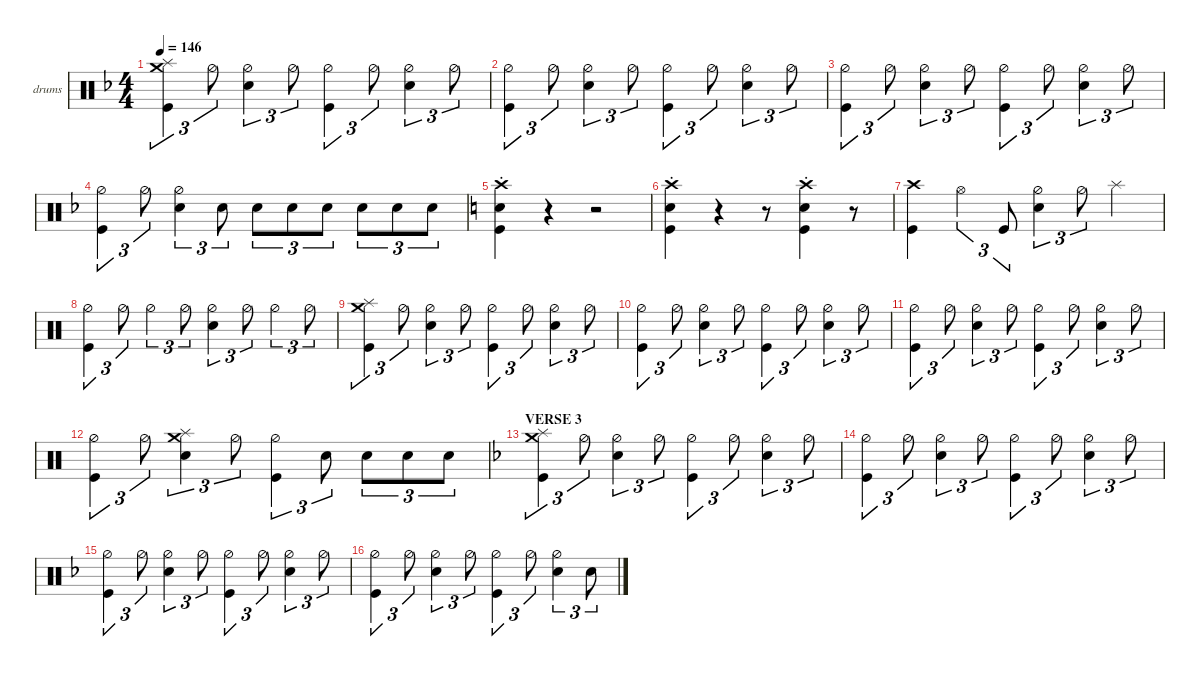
\defaultSystemsLayout 4
\hideDynamics
\bracketExtendMode nobrackets
\firstSystemTrackNameOrientation horizontal
\otherSystemsTrackNameOrientation horizontal
\track ("drums" "drums") {instrument percussion}
\staff {score}
\articulation defaults
\ts (4 4)
\tempo 146
\clef neutral
\scale
1.06392
\ks f
("Kick (hit)" "Splash (hit)" "Crash medium (hit)").4{tu (3 2) dy mf} "Hi-Hat (half)".8{tu (3 2)} ("Hi-Hat (half)" "Snare (hit) 2").4{tu (3 2)} "Hi-Hat (half)".8{tu (3 2)} ("Kick (hit)" "Hi-Hat (half)").4{tu (3 2)} "Hi-Hat (half)".8{tu (3 2)} ("Hi-Hat (half)" "Snare (hit) 2").4{tu (3 2)} "Hi-Hat (half)".8{tu (3 2)} |
\scale
0.978695 ("Kick (hit)" "Hi-Hat (half)").4{tu (3 2)} "Hi-Hat (half)".8{tu (3 2)} ("Hi-Hat (half)" "Snare (hit) 2").4{tu (3 2)} "Hi-Hat (half)".8{tu (3 2)} ("Kick (hit)" "Hi-Hat (half)").4{tu (3 2)} "Hi-Hat (half)".8{tu (3 2)} ("Hi-Hat (half)" "Snare (hit) 2").4{tu (3 2)} "Hi-Hat (half)".8{tu (3 2)} |
\scale
0.978695 ("Kick (hit)" "Hi-Hat (half)").4{tu (3 2)} "Hi-Hat (half)".8{tu (3 2)} ("Hi-Hat (half)" "Snare (hit) 2").4{tu (3 2)} "Hi-Hat (half)".8{tu (3 2)} ("Kick (hit)" "Hi-Hat (half)").4{tu (3 2)} "Hi-Hat (half)".8{tu (3 2)} ("Hi-Hat (half)" "Snare (hit) 2").4{tu (3 2)} "Hi-Hat (half)".8{tu (3 2)} |
\scale
0.978695 ("Kick (hit)" "Hi-Hat (half)").4{tu (3 2)} "Hi-Hat (half)".8{tu (3 2)} ("Hi-Hat (half)" "Snare (hit) 2").4{tu (3 2)} "Snare (hit) 2".8{tu (3 2) dy p} "Snare (hit) 2".8{tu (3 2)} "Snare (hit) 2".8{tu (3 2) dy mp} "Snare (hit) 2".8{tu (3 2)} "Snare (hit) 2".8{tu (3 2)} "Snare (hit) 2".8{tu (3 2) dy mf} "Snare (hit) 2".8{tu (3 2)} |
\scale
1.06392
\ks c
("Kick (hit)" "Crash high (hit)"{st} "Snare (hit) 2").4 r.4 r.2 |
\scale
0.978695 ("Kick (hit)" "Crash high (hit)"{st} "Snare (hit) 2").4 r.4 r.8 ("Kick (hit)" "Crash high (hit)"{st} "Snare (hit) 2").4 r.8 |
\scale
0.978695 ("Kick (hit)" "Crash high (hit)").4 "Hi-Hat (open)".4{tu (3 2)} "Kick (hit)".8{tu (3 2)} ("Hi-Hat (half)" "Snare (hit) 2").4{tu (3 2)} "Hi-Hat (half)".8{tu (3 2)} "Splash (hit)".4{dy p} |
\scale
0.978695 ("Kick (hit)" "Hi-Hat (half)").4{tu (3 2) dy mf} "Hi-Hat (half)".8{tu (3 2)} "Hi-Hat (half)".4{tu (3 2)} "Hi-Hat (half)".8{tu (3 2)} ("Hi-Hat (half)" "Snare (hit) 2").4{tu (3 2)} "Hi-Hat (half)".8{tu (3 2)} "Hi-Hat (half)".4{tu (3 2)} "Hi-Hat (half)".8{tu (3 2)} |
\scale
1.05949 ("Kick (hit)" "Splash (hit)" "Crash medium (hit)").4{tu (3 2)} "Hi-Hat (half)".8{tu (3 2)} ("Hi-Hat (half)" "Snare (hit) 2").4{tu (3 2)} "Hi-Hat (half)".8{tu (3 2)} ("Kick (hit)" "Hi-Hat (half)").4{tu (3 2)} "Hi-Hat (half)".8{tu (3 2)} ("Hi-Hat (half)" "Snare (hit) 2").4{tu (3 2)} "Hi-Hat (half)".8{tu (3 2)} |
\scale
0.974274 ("Kick (hit)" "Hi-Hat (half)").4{tu (3 2)} "Hi-Hat (half)".8{tu (3 2)} ("Hi-Hat (half)" "Snare (hit) 2").4{tu (3 2)} "Hi-Hat (half)".8{tu (3 2)} ("Kick (hit)" "Hi-Hat (half)").4{tu (3 2)} "Hi-Hat (half)".8{tu (3 2)} ("Hi-Hat (half)" "Snare (hit) 2").4{tu (3 2)} "Hi-Hat (half)".8{tu (3 2)} |
\scale
0.974274 ("Kick (hit)" "Hi-Hat (half)").4{tu (3 2)} "Hi-Hat (half)".8{tu (3 2)} ("Hi-Hat (half)" "Snare (hit) 2").4{tu (3 2)} "Hi-Hat (half)".8{tu (3 2)} ("Kick (hit)" "Hi-Hat (half)").4{tu (3 2)} "Hi-Hat (half)".8{tu (3 2)} ("Hi-Hat (half)" "Snare (hit) 2").4{tu (3 2)} "Hi-Hat (half)".8{tu (3 2)} |
\scale
0.991958 ("Kick (hit)" "Hi-Hat (half)").4{tu (3 2)} "Hi-Hat (half)".8{tu (3 2)} ("Splash (hit)" "Crash medium (hit)" "Snare (hit) 2").4{tu (3 2)} "Hi-Hat (half)".8{tu (3 2)} ("Kick (hit)" "Hi-Hat (half)").4{tu (3 2)} "Snare (hit) 2".8{tu (3 2)} "Snare (hit) 2".8{tu (3 2)} "Snare (hit) 2".8{tu (3 2)} "Snare (hit) 2".8{tu (3 2)} |
\section ("" "VERSE 3")
\scale
1.06392
\ks f
("Kick (hit)" "Splash (hit)" "Crash medium (hit)").4{tu (3 2)} "Hi-Hat (half)".8{tu (3 2)} ("Hi-Hat (half)" "Snare (hit) 2").4{tu (3 2)} "Hi-Hat (half)".8{tu (3 2)} ("Kick (hit)" "Hi-Hat (half)").4{tu (3 2)} "Hi-Hat (half)".8{tu (3 2)} ("Hi-Hat (half)" "Snare (hit) 2").4{tu (3 2)} "Hi-Hat (half)".8{tu (3 2)} |
\scale
0.978695 ("Kick (hit)" "Hi-Hat (half)").4{tu (3 2)} "Hi-Hat (half)".8{tu (3 2)} ("Hi-Hat (half)" "Snare (hit) 2").4{tu (3 2)} "Hi-Hat (half)".8{tu (3 2)} ("Kick (hit)" "Hi-Hat (half)").4{tu (3 2)} "Hi-Hat (half)".8{tu (3 2)} ("Hi-Hat (half)" "Snare (hit) 2").4{tu (3 2)} "Hi-Hat (half)".8{tu (3 2)} |
\scale
0.978695 ("Kick (hit)" "Hi-Hat (half)").4{tu (3 2)} "Hi-Hat (half)".8{tu (3 2)} ("Hi-Hat (half)" "Snare (hit) 2").4{tu (3 2)} "Hi-Hat (half)".8{tu (3 2)} ("Kick (hit)" "Hi-Hat (half)").4{tu (3 2)} "Hi-Hat (half)".8{tu (3 2)} ("Hi-Hat (half)" "Snare (hit) 2").4{tu (3 2)} "Hi-Hat (half)".8{tu (3 2)} |
\scale
0.978695 ("Kick (hit)" "Hi-Hat (half)").4{tu (3 2)} "Hi-Hat (half)".8{tu (3 2)} ("Hi-Hat (half)" "Snare (hit) 2").4{tu (3 2)} "Hi-Hat (half)".8{tu (3 2)} ("Kick (hit)" "Hi-Hat (half)").4{tu (3 2)} "Hi-Hat (half)".8{tu (3 2)} ("Hi-Hat (half)" "Snare (hit) 2").4{tu (3 2)} "Snare (hit) 2".8{tu (3 2)}
